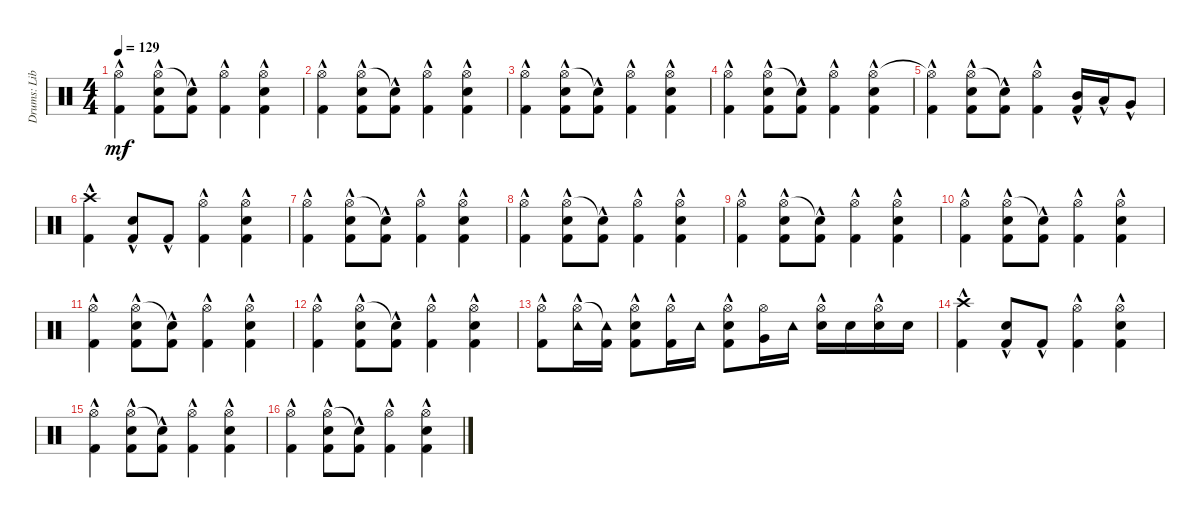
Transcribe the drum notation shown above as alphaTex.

\track ("Drums: Liberty" "Drums: Lib") {instrument percussion}
\staff {score}
\articulation defaults
\ts (4 4)
\tempo 129
\clef neutral
\ks c
("Hi-Hat (open)" "Kick (hit) 2"{hac}).4{dy mf} ("Hi-Hat (open)" "Snare (hit) 2"{hac} "Kick (hit) 2"{hac}).8 ("Snare (hit)"{t} "Kick (hit) 2"{hac}).8 ("Hi-Hat (open)"{hac} "Kick (hit) 2"{hac}).4 ("Hi-Hat (open)"{hac} "Snare (hit) 2"{hac} "Kick (hit) 2"{hac}).4 |
("Hi-Hat (open)" "Kick (hit) 2"{hac}).4 ("Hi-Hat (open)" "Snare (hit) 2"{hac} "Kick (hit) 2"{hac}).8 ("Snare (hit)"{t} "Kick (hit) 2"{hac}).8 ("Hi-Hat (open)"{hac} "Kick (hit) 2"{hac}).4 ("Hi-Hat (open)"{hac} "Snare (hit) 2"{hac} "Kick (hit) 2"{hac}).4 |
("Hi-Hat (open)" "Kick (hit) 2"{hac}).4 ("Hi-Hat (open)" "Snare (hit) 2"{hac} "Kick (hit) 2"{hac}).8 ("Snare (hit)"{t} "Kick (hit) 2"{hac}).8 ("Hi-Hat (open)"{hac} "Kick (hit) 2"{hac}).4 ("Hi-Hat (open)"{hac} "Snare (hit) 2"{hac} "Kick (hit) 2"{hac}).4 |
("Hi-Hat (open)" "Kick (hit) 2"{hac}).4 ("Hi-Hat (open)" "Snare (hit) 2"{hac} "Kick (hit) 2"{hac}).8 ("Snare (hit)"{t} "Kick (hit) 2"{hac}).8 ("Hi-Hat (open)"{hac} "Kick (hit) 2"{hac}).4 ("Hi-Hat (open)"{hac} "Snare (hit) 2"{hac} "Kick (hit) 2"{hac}).4 |
("Hi-Hat (open)"{t} "Kick (hit) 2"{hac}).4 ("Hi-Hat (open)" "Snare (hit) 2"{hac} "Kick (hit) 2"{hac}).8 ("Snare (hit)"{t} "Kick (hit) 2"{hac}).8 ("Hi-Hat (open)"{hac} "Kick (hit) 2"{hac}).4 ("Mid Tom (hit)"{hac} "Kick (hit) 2"{hac}).16 "Low Tom (hit)"{hac}.16 "Very Low Tom (hit)"{hac}.8 |
("Crash high (hit)"{hac} "Kick (hit) 2"{hac}).4 ("Snare (hit) 2"{hac} "Kick (hit) 2"{hac}).8 "Kick (hit) 2"{hac}.8 ("Hi-Hat (open)"{hac} "Kick (hit) 2"{hac}).4 ("Hi-Hat (open)"{hac} "Snare (hit) 2"{hac} "Kick (hit) 2"{hac}).4 |
("Hi-Hat (open)" "Kick (hit) 2"{hac}).4 ("Hi-Hat (open)" "Snare (hit) 2"{hac} "Kick (hit) 2"{hac}).8 ("Snare (hit)"{t} "Kick (hit) 2"{hac}).8 ("Hi-Hat (open)"{hac} "Kick (hit) 2"{hac}).4 ("Hi-Hat (open)"{hac} "Snare (hit) 2"{hac} "Kick (hit) 2"{hac}).4 |
("Hi-Hat (open)" "Kick (hit) 2"{hac}).4 ("Hi-Hat (open)" "Snare (hit) 2"{hac} "Kick (hit) 2"{hac}).8 ("Snare (hit)"{t} "Kick (hit) 2"{hac}).8 ("Hi-Hat (open)"{hac} "Kick (hit) 2"{hac}).4 ("Hi-Hat (open)"{hac} "Snare (hit) 2"{hac} "Kick (hit) 2"{hac}).4 |
("Hi-Hat (open)" "Kick (hit) 2"{hac}).4 ("Hi-Hat (open)" "Snare (hit) 2"{hac} "Kick (hit) 2"{hac}).8 ("Snare (hit)"{t} "Kick (hit) 2"{hac}).8 ("Hi-Hat (open)"{hac} "Kick (hit) 2"{hac}).4 ("Hi-Hat (open)"{hac} "Snare (hit) 2"{hac} "Kick (hit) 2"{hac}).4 |
("Hi-Hat (open)" "Kick (hit) 2"{hac}).4 ("Hi-Hat (open)" "Snare (hit) 2"{hac} "Kick (hit) 2"{hac}).8 ("Snare (hit)"{t} "Kick (hit) 2"{hac}).8 ("Hi-Hat (open)"{hac} "Kick (hit) 2"{hac}).4 ("Hi-Hat (open)"{hac} "Snare (hit) 2"{hac} "Kick (hit) 2"{hac}).4 |
("Hi-Hat (open)" "Kick (hit) 2"{hac}).4 ("Hi-Hat (open)" "Snare (hit) 2"{hac} "Kick (hit) 2"{hac}).8 ("Snare (hit)"{t} "Kick (hit) 2"{hac}).8 ("Hi-Hat (open)"{hac} "Kick (hit) 2"{hac}).4 ("Hi-Hat (open)"{hac} "Snare (hit) 2"{hac} "Kick (hit) 2"{hac}).4 |
("Hi-Hat (open)" "Kick (hit) 2"{hac}).4 ("Hi-Hat (open)" "Snare (hit) 2"{hac} "Kick (hit) 2"{hac}).8 ("Snare (hit)"{t} "Kick (hit) 2"{hac}).8 ("Hi-Hat (open)"{hac} "Kick (hit) 2"{hac}).4 ("Hi-Hat (open)"{hac} "Snare (hit) 2"{hac} "Kick (hit) 2"{hac}).4 |
("Hi-Hat (open)"{hac} "Kick (hit) 2").8 ("Hi-Hat (open)"{hac} "Tambourine (hit)").16 ("Tambourine (hit)"{t} "Kick (hit) 2").16 ("Hi-Hat (open)"{hac} "Snare (hit) 2"{hac} "Kick (hit) 2").8 ("Hi-Hat (open)"{hac} "Kick (hit) 2").16 "Tambourine (hit)".16 ("Hi-Hat (open)"{hac} "Snare (hit) 2"{hac} "Kick (hit) 2").8 ("Hi-Hat (open)" "Very Low Tom (hit)").16 "Tambourine (hit)".16 ("Hi-Hat (open)"{hac} "Snare (hit) 2").16 "Snare (hit) 2".16 ("Hi-Hat (open)"{hac} "Snare (hit) 2").16 "Snare (hit) 2".16 |
("Crash high (hit)"{hac} "Kick (hit) 2"{hac}).4 ("Snare (hit) 2"{hac} "Kick (hit) 2"{hac}).8 "Kick (hit) 2"{hac}.8 ("Hi-Hat (open)"{hac} "Kick (hit) 2"{hac}).4 ("Hi-Hat (open)"{hac} "Snare (hit) 2"{hac} "Kick (hit) 2"{hac}).4 |
("Hi-Hat (open)" "Kick (hit) 2"{hac}).4 ("Hi-Hat (open)" "Snare (hit) 2"{hac} "Kick (hit) 2"{hac}).8 ("Snare (hit)"{t} "Kick (hit) 2"{hac}).8 ("Hi-Hat (open)"{hac} "Kick (hit) 2"{hac}).4 ("Hi-Hat (open)"{hac} "Snare (hit) 2"{hac} "Kick (hit) 2"{hac}).4 |
("Hi-Hat (open)" "Kick (hit) 2"{hac}).4 ("Hi-Hat (open)" "Snare (hit) 2"{hac} "Kick (hit) 2"{hac}).8 ("Snare (hit)"{t} "Kick (hit) 2"{hac}).8 ("Hi-Hat (open)"{hac} "Kick (hit) 2"{hac}).4 ("Hi-Hat (open)"{hac} "Snare (hit) 2"{hac} "Kick (hit) 2"{hac}).4
